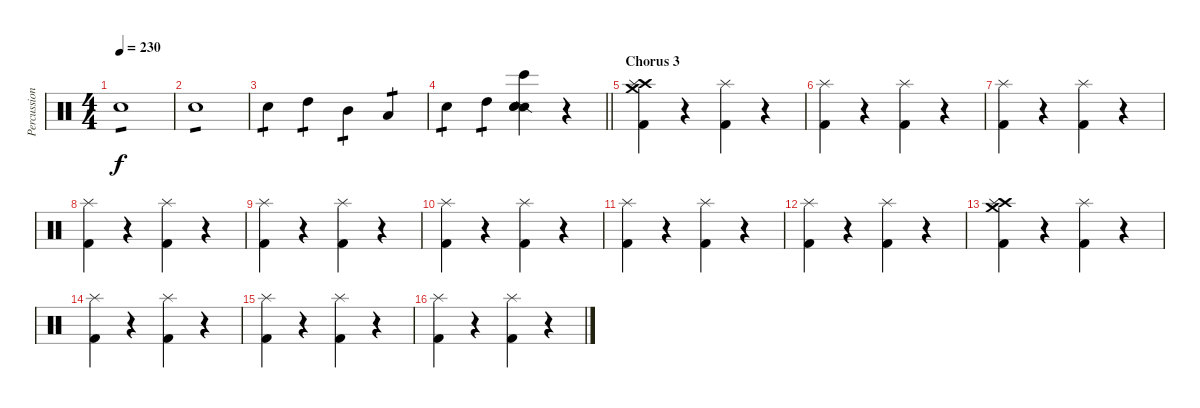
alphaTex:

\track ("Percussion" "Percussion") {instrument percussion}
\staff {score}
\articulation defaults
\ts (4 4)
\tempo 230
\clef neutral
\ks c "Snare (hit) 2".1{tp 1 dy f volume 16}
|
"Snare (hit) 2".1{tp 1} |
"Snare (hit) 2".4{tp 1} "High Tom (hit)".4{tp 1} "Mid Tom (hit)".4{tp 1} "Low Tom (hit)".4{tp 1} |
\barLineRight lightlight "Snare (hit) 2".4{tp 1} "High Tom (hit)".4{tp 1}
("Snare (side stick) 2" "Bongo High (hit)" "Snare (hit) 2" "Snare (hit) 2").4 r.4 |
\section ("" "Chorus 3")
("Crash medium (hit)" "Crash high (hit)" "Kick (hit) 2" "Splash (hit)").4 r.4 ("Kick (hit) 2" "Splash (hit)").4 r.4 |
("Kick (hit) 2" "Splash (hit)").4 r.4 ("Kick (hit) 2" "Splash (hit)").4 r.4 |
("Kick (hit) 2" "Splash (hit)").4 r.4 ("Kick (hit) 2" "Splash (hit)").4 r.4 |
("Kick (hit) 2" "Splash (hit)").4 r.4 ("Kick (hit) 2" "Splash (hit)").4 r.4 |
("Kick (hit) 2" "Splash (hit)").4 r.4 ("Kick (hit) 2" "Splash (hit)").4 r.4 |
("Kick (hit) 2" "Splash (hit)").4 r.4 ("Kick (hit) 2" "Splash (hit)").4 r.4 |
("Kick (hit) 2" "Splash (hit)").4 r.4 ("Kick (hit) 2" "Splash (hit)").4 r.4 |
("Kick (hit) 2" "Splash (hit)").4 r.4 ("Kick (hit) 2" "Splash (hit)").4 r.4 |
("Crash medium (hit)" "Crash high (hit)" "Kick (hit) 2" "Splash (hit)").4 r.4 ("Kick (hit) 2" "Splash (hit)").4 r.4 |
("Kick (hit) 2" "Splash (hit)").4 r.4 ("Kick (hit) 2" "Splash (hit)").4 r.4 |
("Kick (hit) 2" "Splash (hit)").4 r.4 ("Kick (hit) 2" "Splash (hit)").4 r.4 |
("Kick (hit) 2" "Splash (hit)").4 r.4 ("Kick (hit) 2" "Splash (hit)").4 r.4
